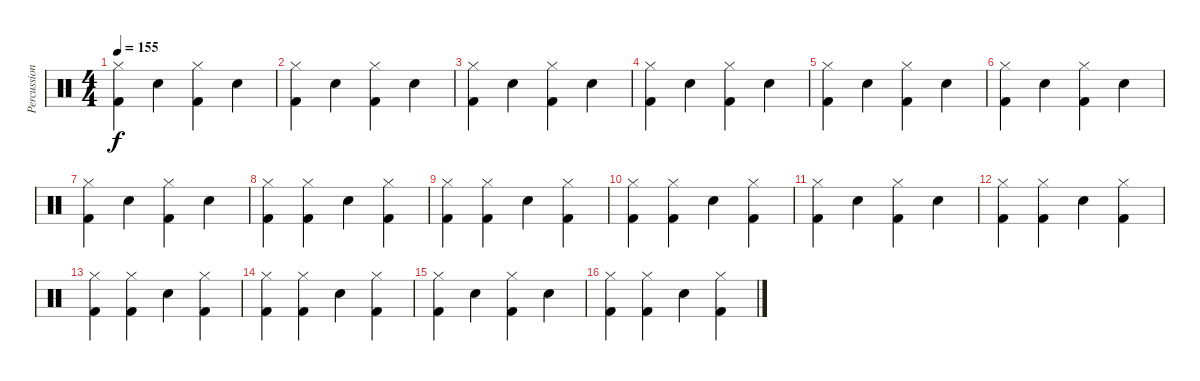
\track ("Percussion" "Percussion") {instrument percussion}
\staff {score}
\articulation defaults
\ts (4 4)
\tempo 155
\clef neutral
\ks c
("Hi-Hat (closed)" "Kick (hit) 2").4{dy f} "Electric Snare (hit)".4 ("Hi-Hat (closed)" "Kick (hit) 2").4 "Electric Snare (hit)".4 |
("Hi-Hat (closed)" "Kick (hit) 2").4 "Electric Snare (hit)".4 ("Hi-Hat (closed)" "Kick (hit) 2").4 "Electric Snare (hit)".4 |
("Hi-Hat (closed)" "Kick (hit) 2").4 "Electric Snare (hit)".4 ("Hi-Hat (closed)" "Kick (hit) 2").4 "Electric Snare (hit)".4 |
("Hi-Hat (closed)" "Kick (hit) 2").4 "Electric Snare (hit)".4 ("Hi-Hat (closed)" "Kick (hit) 2").4 "Electric Snare (hit)".4 |
("Hi-Hat (closed)" "Kick (hit) 2").4 "Electric Snare (hit)".4 ("Hi-Hat (closed)" "Kick (hit) 2").4 "Electric Snare (hit)".4 |
("Hi-Hat (closed)" "Kick (hit) 2").4 "Electric Snare (hit)".4 ("Hi-Hat (closed)" "Kick (hit) 2").4 "Electric Snare (hit)".4 |
("Hi-Hat (closed)" "Kick (hit) 2").4 "Electric Snare (hit)".4 ("Hi-Hat (closed)" "Kick (hit) 2").4 "Electric Snare (hit)".4 |
("Hi-Hat (closed)" "Kick (hit) 2").4 ("Hi-Hat (closed)" "Kick (hit) 2").4 "Electric Snare (hit)".4 ("Hi-Hat (closed)" "Kick (hit) 2").4 |
("Hi-Hat (closed)" "Kick (hit) 2").4 ("Hi-Hat (closed)" "Kick (hit) 2").4 "Electric Snare (hit)".4 ("Hi-Hat (closed)" "Kick (hit) 2").4 |
("Hi-Hat (closed)" "Kick (hit) 2").4 ("Hi-Hat (closed)" "Kick (hit) 2").4 "Electric Snare (hit)".4 ("Hi-Hat (closed)" "Kick (hit) 2").4 |
("Hi-Hat (closed)" "Kick (hit) 2").4 "Electric Snare (hit)".4 ("Hi-Hat (closed)" "Kick (hit) 2").4 "Electric Snare (hit)".4 |
("Hi-Hat (closed)" "Kick (hit) 2").4 ("Hi-Hat (closed)" "Kick (hit) 2").4 "Electric Snare (hit)".4 ("Hi-Hat (closed)" "Kick (hit) 2").4 |
("Hi-Hat (closed)" "Kick (hit) 2").4 ("Hi-Hat (closed)" "Kick (hit) 2").4 "Electric Snare (hit)".4 ("Hi-Hat (closed)" "Kick (hit) 2").4 |
("Hi-Hat (closed)" "Kick (hit) 2").4 ("Hi-Hat (closed)" "Kick (hit) 2").4 "Electric Snare (hit)".4 ("Hi-Hat (closed)" "Kick (hit) 2").4 |
("Hi-Hat (closed)" "Kick (hit) 2").4 "Electric Snare (hit)".4 ("Hi-Hat (closed)" "Kick (hit) 2").4 "Electric Snare (hit)".4 |
("Hi-Hat (closed)" "Kick (hit) 2").4 ("Hi-Hat (closed)" "Kick (hit) 2").4 "Electric Snare (hit)".4 ("Hi-Hat (closed)" "Kick (hit) 2").4
